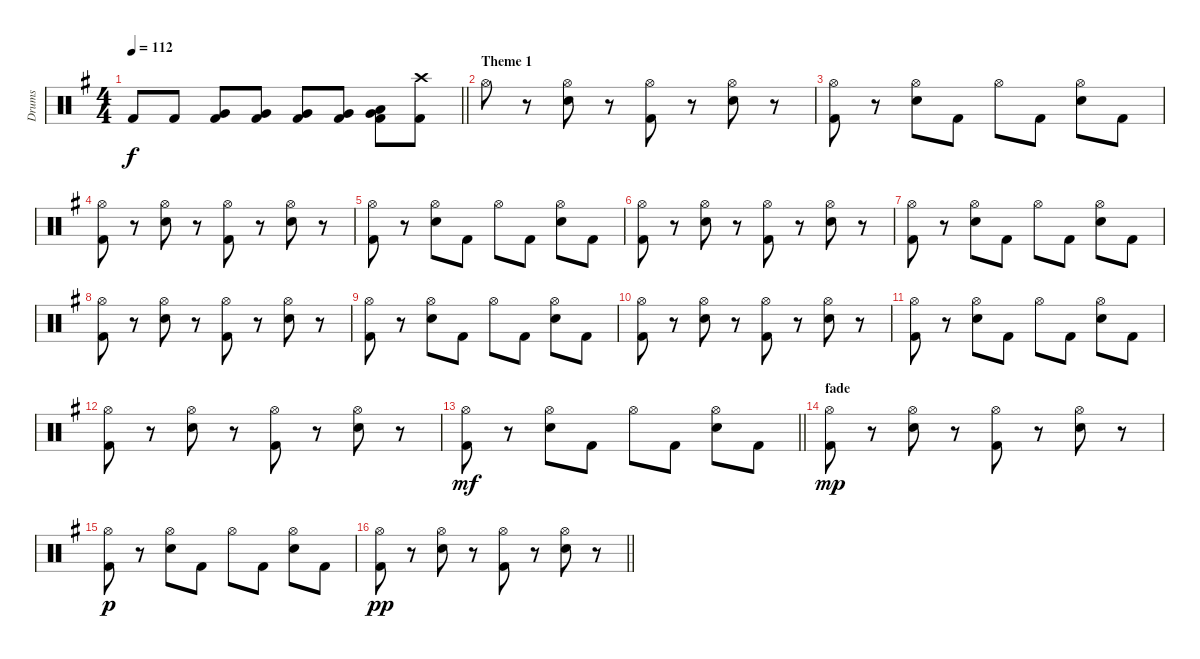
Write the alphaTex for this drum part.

\track ("Drums" "Drums") {instrument percussion}
\staff {score}
\articulation defaults
\ts (4 4)
\tempo 112
\clef neutral
\barLineRight lightlight
\ks eminor "Kick (hit) 2".8{dy f} "Kick (hit) 2".8
("Very Low Tom (hit)" "Kick (hit) 2").8 ("Very Low Tom (hit)" "Kick (hit) 2").8 ("Very Low Tom (hit)" "Kick (hit) 2").8 ("Very Low Tom (hit)" "Kick (hit) 2").8 ("Very Low Tom (hit)" "Low Floor Tom (hit)" "Kick (hit) 2").8 ("Crash high (hit)" "Kick (hit) 2").8 |
\section ("" "Theme 1")
"Hi-Hat (open)".8 r.8 ("Hi-Hat (open)" "Electric Snare (hit)").8 r.8 ("Hi-Hat (open)" "Kick (hit) 2").8 r.8 ("Hi-Hat (open)" "Electric Snare (hit)").8 r.8 |
("Hi-Hat (open)" "Kick (hit) 2").8 r.8 ("Hi-Hat (open)" "Electric Snare (hit)").8 "Kick (hit) 2".8 "Hi-Hat (open)".8 "Kick (hit) 2".8 ("Hi-Hat (open)" "Electric Snare (hit)").8 "Kick (hit) 2".8 |
("Hi-Hat (open)" "Kick (hit) 2").8 r.8 ("Hi-Hat (open)" "Electric Snare (hit)").8 r.8 ("Hi-Hat (open)" "Kick (hit) 2").8 r.8 ("Hi-Hat (open)" "Electric Snare (hit)").8 r.8 |
("Hi-Hat (open)" "Kick (hit) 2").8 r.8 ("Hi-Hat (open)" "Electric Snare (hit)").8 "Kick (hit) 2".8 "Hi-Hat (open)".8 "Kick (hit) 2".8 ("Hi-Hat (open)" "Electric Snare (hit)").8 "Kick (hit) 2".8 |
("Hi-Hat (open)" "Kick (hit) 2").8 r.8 ("Hi-Hat (open)" "Electric Snare (hit)").8 r.8 ("Hi-Hat (open)" "Kick (hit) 2").8 r.8 ("Hi-Hat (open)" "Electric Snare (hit)").8 r.8 |
("Hi-Hat (open)" "Kick (hit) 2").8 r.8 ("Hi-Hat (open)" "Electric Snare (hit)").8 "Kick (hit) 2".8 "Hi-Hat (open)".8 "Kick (hit) 2".8 ("Hi-Hat (open)" "Electric Snare (hit)").8 "Kick (hit) 2".8 |
("Hi-Hat (open)" "Kick (hit) 2").8 r.8 ("Hi-Hat (open)" "Electric Snare (hit)").8 r.8 ("Hi-Hat (open)" "Kick (hit) 2").8 r.8 ("Hi-Hat (open)" "Electric Snare (hit)").8 r.8 |
("Hi-Hat (open)" "Kick (hit) 2").8 r.8 ("Hi-Hat (open)" "Electric Snare (hit)").8 "Kick (hit) 2".8 "Hi-Hat (open)".8 "Kick (hit) 2".8 ("Hi-Hat (open)" "Electric Snare (hit)").8 "Kick (hit) 2".8 |
("Hi-Hat (open)" "Kick (hit) 2").8 r.8 ("Hi-Hat (open)" "Electric Snare (hit)").8 r.8 ("Hi-Hat (open)" "Kick (hit) 2").8 r.8 ("Hi-Hat (open)" "Electric Snare (hit)").8 r.8 |
("Hi-Hat (open)" "Kick (hit) 2").8 r.8 ("Hi-Hat (open)" "Electric Snare (hit)").8 "Kick (hit) 2".8 "Hi-Hat (open)".8 "Kick (hit) 2".8 ("Hi-Hat (open)" "Electric Snare (hit)").8 "Kick (hit) 2".8 |
("Hi-Hat (open)" "Kick (hit) 2").8 r.8 ("Hi-Hat (open)" "Electric Snare (hit)").8 r.8 ("Hi-Hat (open)" "Kick (hit) 2").8 r.8 ("Hi-Hat (open)" "Electric Snare (hit)").8 r.8 |
\barLineRight lightlight
("Hi-Hat (open)" "Kick (hit) 2").8{dy mf} r.8 ("Hi-Hat (open)" "Electric Snare (hit)").8 "Kick (hit) 2".8 "Hi-Hat (open)".8 "Kick (hit) 2".8 ("Hi-Hat (open)" "Electric Snare (hit)").8 "Kick (hit) 2".8 |
\section ("" "fade")
("Hi-Hat (open)" "Kick (hit) 2").8{dy mp} r.8 ("Hi-Hat (open)" "Electric Snare (hit)").8 r.8 ("Hi-Hat (open)" "Kick (hit) 2").8 r.8 ("Hi-Hat (open)" "Electric Snare (hit)").8 r.8 |
("Hi-Hat (open)" "Kick (hit) 2").8{dy p} r.8 ("Hi-Hat (open)" "Electric Snare (hit)").8 "Kick (hit) 2".8 "Hi-Hat (open)".8 "Kick (hit) 2".8 ("Hi-Hat (open)" "Electric Snare (hit)").8 "Kick (hit) 2".8 |
\barLineRight lightlight
("Hi-Hat (open)" "Kick (hit) 2").8{dy pp} r.8 ("Hi-Hat (open)" "Electric Snare (hit)").8 r.8 ("Hi-Hat (open)" "Kick (hit) 2").8 r.8 ("Hi-Hat (open)" "Electric Snare (hit)").8 r.8
